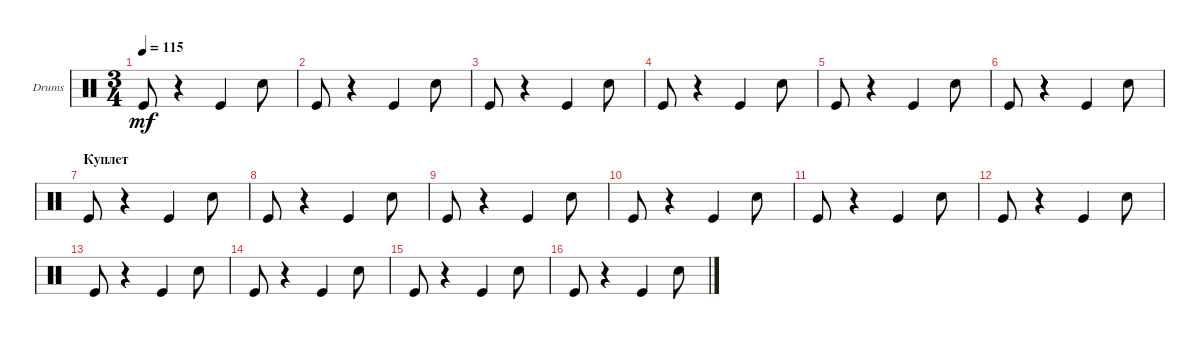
\defaultSystemsLayout 4
\bracketExtendMode groupsimilarinstruments
\firstSystemTrackNameOrientation horizontal
\otherSystemsTrackNameOrientation horizontal
\track ("Е. Кулаков" "Drums") {instrument percussion}
\staff {score}
\articulation defaults
\ts (3 4)
\tempo 115
\clef neutral
\ks c "Kick (hit)".8{dy mf}
r.4 "Kick (hit)".4 "Snare (hit) 2".8 |
"Kick (hit)".8 r.4 "Kick (hit)".4 "Snare (hit) 2".8 |
"Kick (hit)".8 r.4 "Kick (hit)".4 "Snare (hit) 2".8 |
"Kick (hit)".8 r.4 "Kick (hit)".4 "Snare (hit) 2".8 |
"Kick (hit)".8 r.4 "Kick (hit)".4 "Snare (hit) 2".8 |
"Kick (hit)".8 r.4 "Kick (hit)".4 "Snare (hit) 2".8 |
\section ("" "Куплет")
"Kick (hit)".8 r.4 "Kick (hit)".4 "Snare (hit) 2".8 |
"Kick (hit)".8 r.4 "Kick (hit)".4 "Snare (hit) 2".8 |
"Kick (hit)".8 r.4 "Kick (hit)".4 "Snare (hit) 2".8 |
"Kick (hit)".8 r.4 "Kick (hit)".4 "Snare (hit) 2".8 |
"Kick (hit)".8 r.4 "Kick (hit)".4 "Snare (hit) 2".8 |
"Kick (hit)".8 r.4 "Kick (hit)".4 "Snare (hit) 2".8 |
"Kick (hit)".8 r.4 "Kick (hit)".4 "Snare (hit) 2".8 |
"Kick (hit)".8 r.4 "Kick (hit)".4 "Snare (hit) 2".8 |
"Kick (hit)".8 r.4 "Kick (hit)".4 "Snare (hit) 2".8 |
"Kick (hit)".8 r.4 "Kick (hit)".4 "Snare (hit) 2".8
